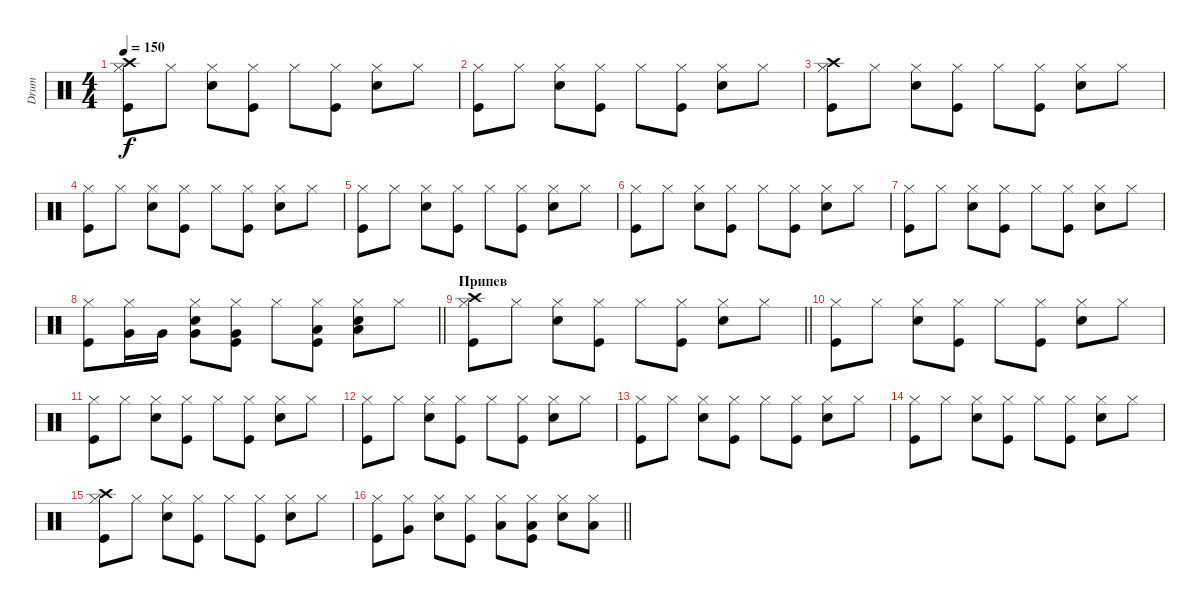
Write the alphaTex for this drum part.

\track ("Drum" "Drum") {instrument percussion}
\staff {score}
\articulation defaults
\ts (4 4)
\tempo 150
\clef neutral
\ks c
("Kick (hit)" "Hi-Hat (closed)" "Crash high (hit)").8{dy f} "Hi-Hat (closed)".8 ("Snare (hit) 2" "Hi-Hat (closed)").8 ("Kick (hit)" "Hi-Hat (closed)").8 "Hi-Hat (closed)".8 ("Kick (hit)" "Hi-Hat (closed)").8 ("Snare (hit) 2" "Hi-Hat (closed)").8 "Hi-Hat (closed)".8 |
("Kick (hit)" "Hi-Hat (closed)").8 "Hi-Hat (closed)".8 ("Snare (hit) 2" "Hi-Hat (closed)").8 ("Kick (hit)" "Hi-Hat (closed)").8 "Hi-Hat (closed)".8 ("Kick (hit)" "Hi-Hat (closed)").8 ("Snare (hit) 2" "Hi-Hat (closed)").8 "Hi-Hat (closed)".8 |
("Kick (hit)" "Hi-Hat (closed)" "Crash high (hit)").8 "Hi-Hat (closed)".8 ("Snare (hit) 2" "Hi-Hat (closed)").8 ("Kick (hit)" "Hi-Hat (closed)").8 "Hi-Hat (closed)".8 ("Kick (hit)" "Hi-Hat (closed)").8 ("Snare (hit) 2" "Hi-Hat (closed)").8 "Hi-Hat (closed)".8 |
("Kick (hit)" "Hi-Hat (closed)").8 "Hi-Hat (closed)".8 ("Snare (hit) 2" "Hi-Hat (closed)").8 ("Kick (hit)" "Hi-Hat (closed)").8 "Hi-Hat (closed)".8 ("Kick (hit)" "Hi-Hat (closed)").8 ("Snare (hit) 2" "Hi-Hat (closed)").8 "Hi-Hat (closed)".8 |
("Kick (hit)" "Hi-Hat (closed)").8 "Hi-Hat (closed)".8 ("Snare (hit) 2" "Hi-Hat (closed)").8 ("Kick (hit)" "Hi-Hat (closed)").8 "Hi-Hat (closed)".8 ("Kick (hit)" "Hi-Hat (closed)").8 ("Snare (hit) 2" "Hi-Hat (closed)").8 "Hi-Hat (closed)".8 |
("Kick (hit)" "Hi-Hat (closed)").8 "Hi-Hat (closed)".8 ("Snare (hit) 2" "Hi-Hat (closed)").8 ("Kick (hit)" "Hi-Hat (closed)").8 "Hi-Hat (closed)".8 ("Kick (hit)" "Hi-Hat (closed)").8 ("Snare (hit) 2" "Hi-Hat (closed)").8 "Hi-Hat (closed)".8 |
("Kick (hit)" "Hi-Hat (closed)").8 "Hi-Hat (closed)".8 ("Snare (hit) 2" "Hi-Hat (closed)").8 ("Kick (hit)" "Hi-Hat (closed)").8 "Hi-Hat (closed)".8 ("Kick (hit)" "Hi-Hat (closed)").8 ("Snare (hit) 2" "Hi-Hat (closed)").8 "Hi-Hat (closed)".8 |
\barLineRight lightlight
("Kick (hit)" "Hi-Hat (closed)").8 ("Hi-Hat (closed)" "Very Low Tom (hit)").16 "Very Low Tom (hit)".16 ("Snare (hit) 2" "Hi-Hat (closed)" "Very Low Tom (hit)").8 ("Kick (hit)" "Hi-Hat (closed)" "Very Low Tom (hit)").8 "Hi-Hat (closed)".8 ("Kick (hit)" "Hi-Hat (closed)" "Low Tom (hit)").8 ("Snare (hit) 2" "Hi-Hat (closed)" "Low Tom (hit)").8 "Hi-Hat (closed)".8 |
\section ("" "Припев")
\barLineRight lightlight
("Kick (hit)" "Hi-Hat (closed)" "Crash high (hit)").8 "Hi-Hat (closed)".8 ("Snare (hit) 2" "Hi-Hat (closed)").8 ("Kick (hit)" "Hi-Hat (closed)").8 "Hi-Hat (closed)".8 ("Kick (hit)" "Hi-Hat (closed)").8 ("Snare (hit) 2" "Hi-Hat (closed)").8 "Hi-Hat (closed)".8 |
("Kick (hit)" "Hi-Hat (closed)").8 "Hi-Hat (closed)".8 ("Snare (hit) 2" "Hi-Hat (closed)").8 ("Kick (hit)" "Hi-Hat (closed)").8 "Hi-Hat (closed)".8 ("Kick (hit)" "Hi-Hat (closed)").8 ("Snare (hit) 2" "Hi-Hat (closed)").8 "Hi-Hat (closed)".8 |
("Kick (hit)" "Hi-Hat (closed)").8 "Hi-Hat (closed)".8 ("Snare (hit) 2" "Hi-Hat (closed)").8 ("Kick (hit)" "Hi-Hat (closed)").8 "Hi-Hat (closed)".8 ("Kick (hit)" "Hi-Hat (closed)").8 ("Snare (hit) 2" "Hi-Hat (closed)").8 "Hi-Hat (closed)".8 |
("Kick (hit)" "Hi-Hat (closed)").8 "Hi-Hat (closed)".8 ("Snare (hit) 2" "Hi-Hat (closed)").8 ("Kick (hit)" "Hi-Hat (closed)").8 "Hi-Hat (closed)".8 ("Kick (hit)" "Hi-Hat (closed)").8 ("Snare (hit) 2" "Hi-Hat (closed)").8 "Hi-Hat (closed)".8 |
("Kick (hit)" "Hi-Hat (closed)").8 "Hi-Hat (closed)".8 ("Snare (hit) 2" "Hi-Hat (closed)").8 ("Kick (hit)" "Hi-Hat (closed)").8 "Hi-Hat (closed)".8 ("Kick (hit)" "Hi-Hat (closed)").8 ("Snare (hit) 2" "Hi-Hat (closed)").8 "Hi-Hat (closed)".8 |
("Kick (hit)" "Hi-Hat (closed)").8 "Hi-Hat (closed)".8 ("Snare (hit) 2" "Hi-Hat (closed)").8 ("Kick (hit)" "Hi-Hat (closed)").8 "Hi-Hat (closed)".8 ("Kick (hit)" "Hi-Hat (closed)").8 ("Snare (hit) 2" "Hi-Hat (closed)").8 "Hi-Hat (closed)".8 |
("Kick (hit)" "Hi-Hat (closed)" "Crash high (hit)").8 "Hi-Hat (closed)".8 ("Snare (hit) 2" "Hi-Hat (closed)").8 ("Kick (hit)" "Hi-Hat (closed)").8 "Hi-Hat (closed)".8 ("Kick (hit)" "Hi-Hat (closed)").8 ("Snare (hit) 2" "Hi-Hat (closed)").8 "Hi-Hat (closed)".8 |
\barLineRight lightlight
("Kick (hit)" "Hi-Hat (closed)").8 ("Hi-Hat (closed)" "Very Low Tom (hit)").8 ("Snare (hit) 2" "Hi-Hat (closed)").8 ("Kick (hit)" "Hi-Hat (closed)").8 ("Hi-Hat (closed)" "Low Tom (hit)").8 ("Kick (hit)" "Hi-Hat (closed)" "Low Tom (hit)").8 ("Snare (hit) 2" "Hi-Hat (closed)").8 ("Hi-Hat (closed)" "Low Tom (hit)").8
